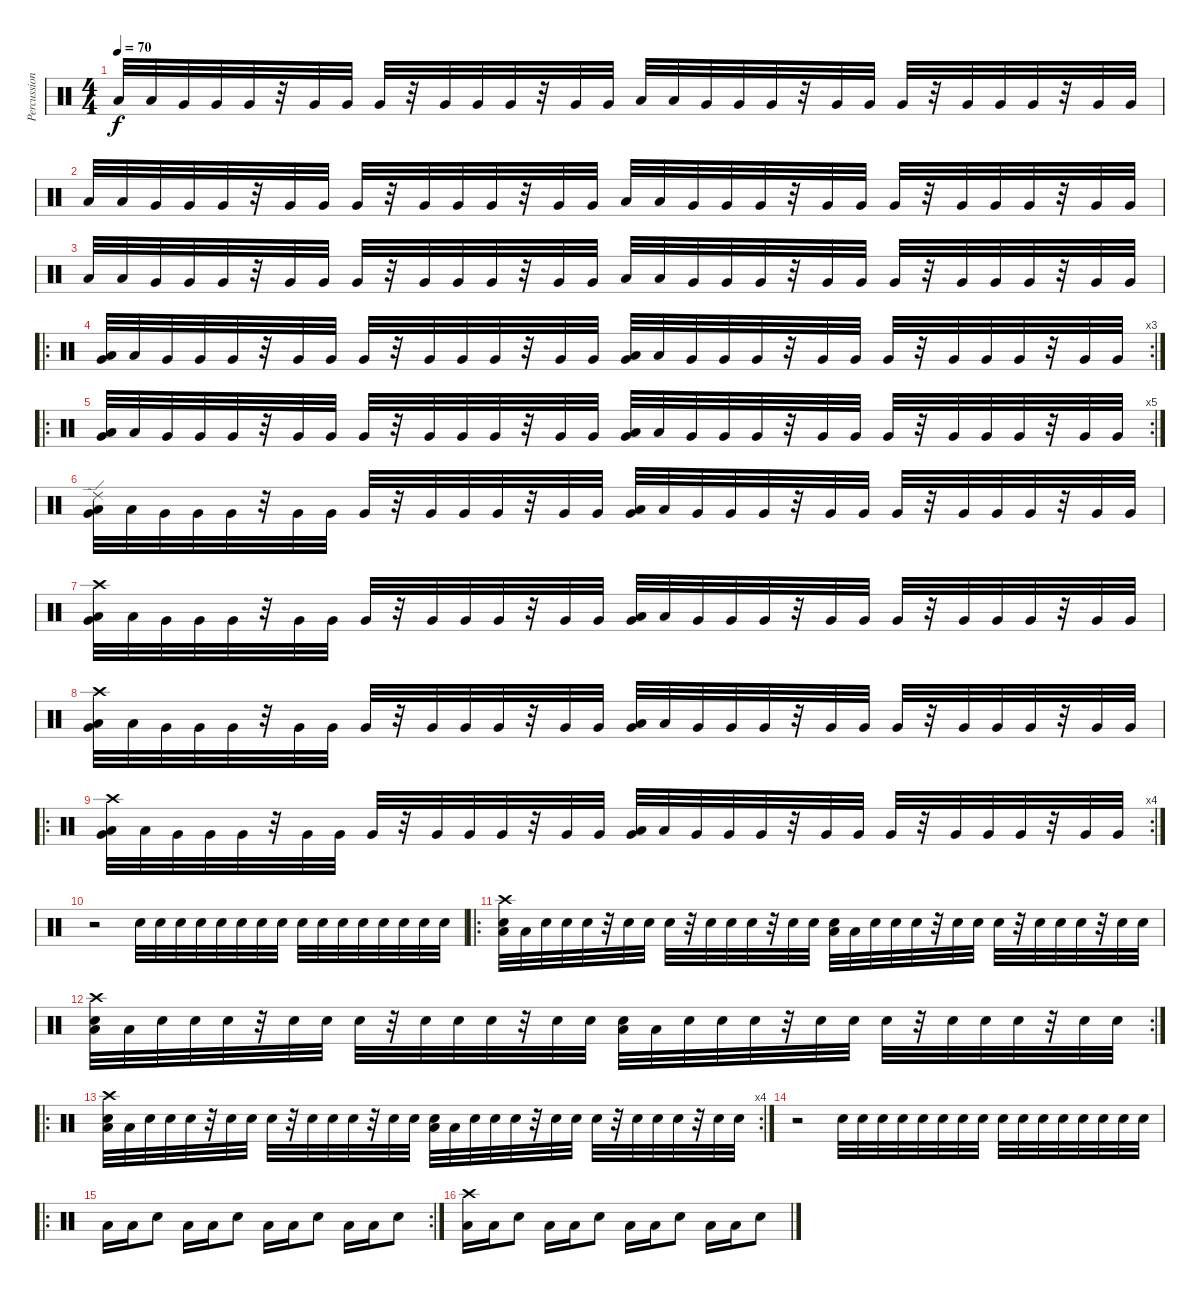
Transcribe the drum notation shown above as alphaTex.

\track ("Percussions" "Percussion") {instrument percussion}
\staff {score}
\articulation defaults
\ts (4 4)
\tempo 70
\clef neutral
\ks c "Low Floor Tom (hit)".32{dy f} "Low Floor Tom (hit)".32 "Very Low Tom (hit)".32 "Very Low Tom (hit)".32 "Very Low Tom (hit)".32
r.32 "Very Low Tom (hit)".32 "Very Low Tom (hit)".32 "Very Low Tom (hit)".32 r.32 "Very Low Tom (hit)".32 "Very Low Tom (hit)".32 "Very Low Tom (hit)".32 r.32 "Very Low Tom (hit)".32 "Very Low Tom (hit)".32 "Low Floor Tom (hit)".32 "Low Floor Tom (hit)".32 "Very Low Tom (hit)".32 "Very Low Tom (hit)".32 "Very Low Tom (hit)".32 r.32 "Very Low Tom (hit)".32 "Very Low Tom (hit)".32 "Very Low Tom (hit)".32 r.32 "Very Low Tom (hit)".32 "Very Low Tom (hit)".32 "Very Low Tom (hit)".32 r.32 "Very Low Tom (hit)".32 "Very Low Tom (hit)".32 |
"Low Floor Tom (hit)".32 "Low Floor Tom (hit)".32 "Very Low Tom (hit)".32 "Very Low Tom (hit)".32 "Very Low Tom (hit)".32 r.32 "Very Low Tom (hit)".32 "Very Low Tom (hit)".32 "Very Low Tom (hit)".32 r.32 "Very Low Tom (hit)".32 "Very Low Tom (hit)".32 "Very Low Tom (hit)".32 r.32 "Very Low Tom (hit)".32 "Very Low Tom (hit)".32 "Low Floor Tom (hit)".32 "Low Floor Tom (hit)".32 "Very Low Tom (hit)".32 "Very Low Tom (hit)".32 "Very Low Tom (hit)".32 r.32 "Very Low Tom (hit)".32 "Very Low Tom (hit)".32 "Very Low Tom (hit)".32 r.32 "Very Low Tom (hit)".32 "Very Low Tom (hit)".32 "Very Low Tom (hit)".32 r.32 "Very Low Tom (hit)".32 "Very Low Tom (hit)".32 |
"Low Floor Tom (hit)".32 "Low Floor Tom (hit)".32 "Very Low Tom (hit)".32 "Very Low Tom (hit)".32 "Very Low Tom (hit)".32 r.32 "Very Low Tom (hit)".32 "Very Low Tom (hit)".32 "Very Low Tom (hit)".32 r.32 "Very Low Tom (hit)".32 "Very Low Tom (hit)".32 "Very Low Tom (hit)".32 r.32 "Very Low Tom (hit)".32 "Very Low Tom (hit)".32 "Low Floor Tom (hit)".32 "Low Floor Tom (hit)".32 "Very Low Tom (hit)".32 "Very Low Tom (hit)".32 "Very Low Tom (hit)".32 r.32 "Very Low Tom (hit)".32 "Very Low Tom (hit)".32 "Very Low Tom (hit)".32 r.32 "Very Low Tom (hit)".32 "Very Low Tom (hit)".32 "Very Low Tom (hit)".32 r.32 "Very Low Tom (hit)".32 "Very Low Tom (hit)".32 |
\ro
\rc 3
("Low Floor Tom (hit)" "Very Low Tom (hit)").32 "Low Floor Tom (hit)".32 "Very Low Tom (hit)".32 "Very Low Tom (hit)".32 "Very Low Tom (hit)".32 r.32 "Very Low Tom (hit)".32 "Very Low Tom (hit)".32 "Very Low Tom (hit)".32 r.32 "Very Low Tom (hit)".32 "Very Low Tom (hit)".32 "Very Low Tom (hit)".32 r.32 "Very Low Tom (hit)".32 "Very Low Tom (hit)".32 ("Low Floor Tom (hit)" "Very Low Tom (hit)").32 "Low Floor Tom (hit)".32 "Very Low Tom (hit)".32 "Very Low Tom (hit)".32 "Very Low Tom (hit)".32 r.32 "Very Low Tom (hit)".32 "Very Low Tom (hit)".32 "Very Low Tom (hit)".32 r.32 "Very Low Tom (hit)".32 "Very Low Tom (hit)".32 "Very Low Tom (hit)".32 r.32 "Very Low Tom (hit)".32 "Very Low Tom (hit)".32 |
\ro
\rc 5
("Low Floor Tom (hit)" "Very Low Tom (hit)").32 "Low Floor Tom (hit)".32 "Very Low Tom (hit)".32 "Very Low Tom (hit)".32 "Very Low Tom (hit)".32 r.32 "Very Low Tom (hit)".32 "Very Low Tom (hit)".32 "Very Low Tom (hit)".32 r.32 "Very Low Tom (hit)".32 "Very Low Tom (hit)".32 "Very Low Tom (hit)".32 r.32 "Very Low Tom (hit)".32 "Very Low Tom (hit)".32 ("Low Floor Tom (hit)" "Very Low Tom (hit)").32 "Low Floor Tom (hit)".32 "Very Low Tom (hit)".32 "Very Low Tom (hit)".32 "Very Low Tom (hit)".32 r.32 "Very Low Tom (hit)".32 "Very Low Tom (hit)".32 "Very Low Tom (hit)".32 r.32 "Very Low Tom (hit)".32 "Very Low Tom (hit)".32 "Very Low Tom (hit)".32 r.32 "Very Low Tom (hit)".32 "Very Low Tom (hit)".32 |
("Low Floor Tom (hit)" "Very Low Tom (hit)" "Ride (edge) 2").32 "Low Floor Tom (hit)".32 "Very Low Tom (hit)".32 "Very Low Tom (hit)".32 "Very Low Tom (hit)".32 r.32 "Very Low Tom (hit)".32 "Very Low Tom (hit)".32 "Very Low Tom (hit)".32 r.32 "Very Low Tom (hit)".32 "Very Low Tom (hit)".32 "Very Low Tom (hit)".32 r.32 "Very Low Tom (hit)".32 "Very Low Tom (hit)".32 ("Low Floor Tom (hit)" "Very Low Tom (hit)").32 "Low Floor Tom (hit)".32 "Very Low Tom (hit)".32 "Very Low Tom (hit)".32 "Very Low Tom (hit)".32 r.32 "Very Low Tom (hit)".32 "Very Low Tom (hit)".32 "Very Low Tom (hit)".32 r.32 "Very Low Tom (hit)".32 "Very Low Tom (hit)".32 "Very Low Tom (hit)".32 r.32 "Very Low Tom (hit)".32 "Very Low Tom (hit)".32 |
("Low Floor Tom (hit)" "Very Low Tom (hit)" "Crash high (hit)").32 "Low Floor Tom (hit)".32 "Very Low Tom (hit)".32 "Very Low Tom (hit)".32 "Very Low Tom (hit)".32 r.32 "Very Low Tom (hit)".32 "Very Low Tom (hit)".32 "Very Low Tom (hit)".32 r.32 "Very Low Tom (hit)".32 "Very Low Tom (hit)".32 "Very Low Tom (hit)".32 r.32 "Very Low Tom (hit)".32 "Very Low Tom (hit)".32 ("Low Floor Tom (hit)" "Very Low Tom (hit)").32 "Low Floor Tom (hit)".32 "Very Low Tom (hit)".32 "Very Low Tom (hit)".32 "Very Low Tom (hit)".32 r.32 "Very Low Tom (hit)".32 "Very Low Tom (hit)".32 "Very Low Tom (hit)".32 r.32 "Very Low Tom (hit)".32 "Very Low Tom (hit)".32 "Very Low Tom (hit)".32 r.32 "Very Low Tom (hit)".32 "Very Low Tom (hit)".32 |
("Low Floor Tom (hit)" "Very Low Tom (hit)" "Crash high (hit)").32 "Low Floor Tom (hit)".32 "Very Low Tom (hit)".32 "Very Low Tom (hit)".32 "Very Low Tom (hit)".32 r.32 "Very Low Tom (hit)".32 "Very Low Tom (hit)".32 "Very Low Tom (hit)".32 r.32 "Very Low Tom (hit)".32 "Very Low Tom (hit)".32 "Very Low Tom (hit)".32 r.32 "Very Low Tom (hit)".32 "Very Low Tom (hit)".32 ("Low Floor Tom (hit)" "Very Low Tom (hit)").32 "Low Floor Tom (hit)".32 "Very Low Tom (hit)".32 "Very Low Tom (hit)".32 "Very Low Tom (hit)".32 r.32 "Very Low Tom (hit)".32 "Very Low Tom (hit)".32 "Very Low Tom (hit)".32 r.32 "Very Low Tom (hit)".32 "Very Low Tom (hit)".32 "Very Low Tom (hit)".32 r.32 "Very Low Tom (hit)".32 "Very Low Tom (hit)".32 |
\ro
\rc 4
("Low Floor Tom (hit)" "Very Low Tom (hit)" "Crash high (hit)").32 "Low Floor Tom (hit)".32 "Very Low Tom (hit)".32 "Very Low Tom (hit)".32 "Very Low Tom (hit)".32 r.32 "Very Low Tom (hit)".32 "Very Low Tom (hit)".32 "Very Low Tom (hit)".32 r.32 "Very Low Tom (hit)".32 "Very Low Tom (hit)".32 "Very Low Tom (hit)".32 r.32 "Very Low Tom (hit)".32 "Very Low Tom (hit)".32 ("Low Floor Tom (hit)" "Very Low Tom (hit)").32 "Low Floor Tom (hit)".32 "Very Low Tom (hit)".32 "Very Low Tom (hit)".32 "Very Low Tom (hit)".32 r.32 "Very Low Tom (hit)".32 "Very Low Tom (hit)".32 "Very Low Tom (hit)".32 r.32 "Very Low Tom (hit)".32 "Very Low Tom (hit)".32 "Very Low Tom (hit)".32 r.32 "Very Low Tom (hit)".32 "Very Low Tom (hit)".32 |
r.2 "Snare (hit) 2".32 "Snare (hit) 2".32 "Snare (hit) 2".32 "Snare (hit) 2".32 "Snare (hit) 2".32 "Snare (hit) 2".32 "Snare (hit) 2".32 "Snare (hit) 2".32 "Snare (hit) 2".32 "Snare (hit) 2".32 "Snare (hit) 2".32 "Snare (hit) 2".32 "Snare (hit) 2".32 "Snare (hit) 2".32 "Snare (hit) 2".32 "Snare (hit) 2".32 |
\ro
("Low Floor Tom (hit)" "Snare (hit) 2" "Crash high (hit)").32 "Low Floor Tom (hit)".32 "Snare (hit) 2".32 "Snare (hit) 2".32 "Snare (hit) 2".32 r.32 "Snare (hit) 2".32 "Snare (hit) 2".32 "Snare (hit) 2".32 r.32 "Snare (hit) 2".32 "Snare (hit) 2".32 "Snare (hit) 2".32 r.32 "Snare (hit) 2".32 "Snare (hit) 2".32 ("Low Floor Tom (hit)" "Snare (hit) 2").32 "Low Floor Tom (hit)".32 "Snare (hit) 2".32 "Snare (hit) 2".32 "Snare (hit) 2".32 r.32 "Snare (hit) 2".32 "Snare (hit) 2".32 "Snare (hit) 2".32 r.32 "Snare (hit) 2".32 "Snare (hit) 2".32 "Snare (hit) 2".32 r.32 "Snare (hit) 2".32 "Snare (hit) 2".32 |
\rc 2
("Low Floor Tom (hit)" "Snare (hit) 2" "Crash high (hit)").32 "Low Floor Tom (hit)".32 "Snare (hit) 2".32 "Snare (hit) 2".32 "Snare (hit) 2".32 r.32 "Snare (hit) 2".32 "Snare (hit) 2".32 "Snare (hit) 2".32 r.32 "Snare (hit) 2".32 "Snare (hit) 2".32 "Snare (hit) 2".32 r.32 "Snare (hit) 2".32 "Snare (hit) 2".32 ("Low Floor Tom (hit)" "Snare (hit) 2").32 "Low Floor Tom (hit)".32 "Snare (hit) 2".32 "Snare (hit) 2".32 "Snare (hit) 2".32 r.32 "Snare (hit) 2".32 "Snare (hit) 2".32 "Snare (hit) 2".32 r.32 "Snare (hit) 2".32 "Snare (hit) 2".32 "Snare (hit) 2".32 r.32 "Snare (hit) 2".32 "Snare (hit) 2".32 |
\ro
\rc 4
("Low Floor Tom (hit)" "Snare (hit) 2" "Crash high (hit)").32 "Low Floor Tom (hit)".32 "Snare (hit) 2".32 "Snare (hit) 2".32 "Snare (hit) 2".32 r.32 "Snare (hit) 2".32 "Snare (hit) 2".32 "Snare (hit) 2".32 r.32 "Snare (hit) 2".32 "Snare (hit) 2".32 "Snare (hit) 2".32 r.32 "Snare (hit) 2".32 "Snare (hit) 2".32 ("Low Floor Tom (hit)" "Snare (hit) 2").32 "Low Floor Tom (hit)".32 "Snare (hit) 2".32 "Snare (hit) 2".32 "Snare (hit) 2".32 r.32 "Snare (hit) 2".32 "Snare (hit) 2".32 "Snare (hit) 2".32 r.32 "Snare (hit) 2".32 "Snare (hit) 2".32 "Snare (hit) 2".32 r.32 "Snare (hit) 2".32 "Snare (hit) 2".32 |
r.2 "Snare (hit) 2".32 "Snare (hit) 2".32 "Snare (hit) 2".32 "Snare (hit) 2".32 "Snare (hit) 2".32 "Snare (hit) 2".32 "Snare (hit) 2".32 "Snare (hit) 2".32 "Snare (hit) 2".32 "Snare (hit) 2".32 "Snare (hit) 2".32 "Snare (hit) 2".32 "Snare (hit) 2".32 "Snare (hit) 2".32 "Snare (hit) 2".32 "Snare (hit) 2".32 |
\ro
\rc 2 "Low Floor Tom (hit)".16 "Low Floor Tom (hit)".16 "Snare (hit) 2".8 "Low Floor Tom (hit)".16 "Low Floor Tom (hit)".16 "Snare (hit) 2".8 "Low Floor Tom (hit)".16 "Low Floor Tom (hit)".16 "Snare (hit) 2".8 "Low Floor Tom (hit)".16 "Low Floor Tom (hit)".16 "Snare (hit) 2".8
|
("Low Floor Tom (hit)" "Crash high (hit)").16 "Low Floor Tom (hit)".16 "Snare (hit) 2".8 "Low Floor Tom (hit)".16 "Low Floor Tom (hit)".16 "Snare (hit) 2".8 "Low Floor Tom (hit)".16 "Low Floor Tom (hit)".16 "Snare (hit) 2".8 "Low Floor Tom (hit)".16 "Low Floor Tom (hit)".16 "Snare (hit) 2".8
